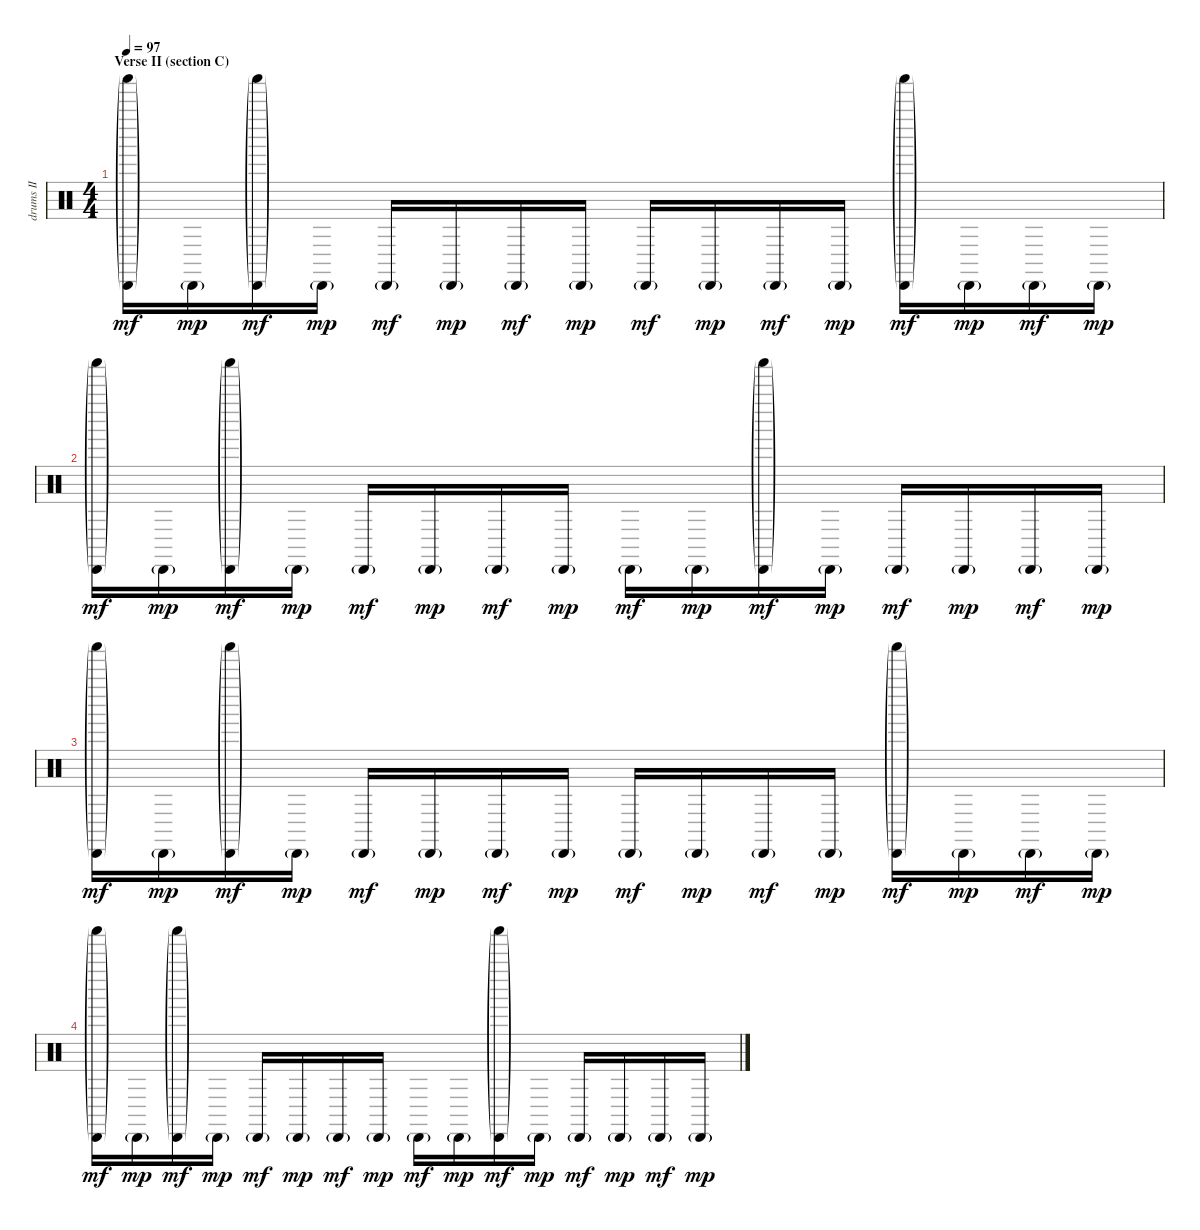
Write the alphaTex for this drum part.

\track ("drums II" "drums II") {instrument percussion}
\staff {score}
\articulation defaults
\ts (4 4)
\section ("" "Verse II (section C)")
\tempo 97
\clef neutral
\ks c
("Shaker (hit)"{g} "Cabasa (hit)"{g}).16{dy mf} "Cabasa (hit)"{g}.16{dy mp} ("Shaker (hit)"{g} "Cabasa (hit)"{g}).16{dy mf} "Cabasa (hit)"{g}.16{dy mp} "Cabasa (hit)"{g}.16{dy mf} "Cabasa (hit)"{g}.16{dy mp} "Cabasa (hit)"{g}.16{dy mf} "Cabasa (hit)"{g}.16{dy mp} "Cabasa (hit)"{g}.16{dy mf} "Cabasa (hit)"{g}.16{dy mp} "Cabasa (hit)"{g}.16{dy mf} "Cabasa (hit)"{g}.16{dy mp} ("Shaker (hit)"{g} "Cabasa (hit)"{g}).16{dy mf} "Cabasa (hit)"{g}.16{dy mp} "Cabasa (hit)"{g}.16{dy mf} "Cabasa (hit)"{g}.16{dy mp} |
("Shaker (hit)"{g} "Cabasa (hit)"{g}).16{dy mf} "Cabasa (hit)"{g}.16{dy mp} ("Shaker (hit)"{g} "Cabasa (hit)"{g}).16{dy mf} "Cabasa (hit)"{g}.16{dy mp} "Cabasa (hit)"{g}.16{dy mf} "Cabasa (hit)"{g}.16{dy mp} "Cabasa (hit)"{g}.16{dy mf} "Cabasa (hit)"{g}.16{dy mp} "Cabasa (hit)"{g}.16{dy mf} "Cabasa (hit)"{g}.16{dy mp} ("Shaker (hit)"{g} "Cabasa (hit)"{g}).16{dy mf} "Cabasa (hit)"{g}.16{dy mp} "Cabasa (hit)"{g}.16{dy mf} "Cabasa (hit)"{g}.16{dy mp} "Cabasa (hit)"{g}.16{dy mf} "Cabasa (hit)"{g}.16{dy mp} |
("Shaker (hit)"{g} "Cabasa (hit)"{g}).16{dy mf} "Cabasa (hit)"{g}.16{dy mp} ("Shaker (hit)"{g} "Cabasa (hit)"{g}).16{dy mf} "Cabasa (hit)"{g}.16{dy mp} "Cabasa (hit)"{g}.16{dy mf} "Cabasa (hit)"{g}.16{dy mp} "Cabasa (hit)"{g}.16{dy mf} "Cabasa (hit)"{g}.16{dy mp} "Cabasa (hit)"{g}.16{dy mf} "Cabasa (hit)"{g}.16{dy mp} "Cabasa (hit)"{g}.16{dy mf} "Cabasa (hit)"{g}.16{dy mp} ("Shaker (hit)"{g} "Cabasa (hit)"{g}).16{dy mf} "Cabasa (hit)"{g}.16{dy mp} "Cabasa (hit)"{g}.16{dy mf} "Cabasa (hit)"{g}.16{dy mp} |
("Shaker (hit)"{g} "Cabasa (hit)"{g}).16{dy mf} "Cabasa (hit)"{g}.16{dy mp} ("Shaker (hit)"{g} "Cabasa (hit)"{g}).16{dy mf} "Cabasa (hit)"{g}.16{dy mp} "Cabasa (hit)"{g}.16{dy mf} "Cabasa (hit)"{g}.16{dy mp} "Cabasa (hit)"{g}.16{dy mf} "Cabasa (hit)"{g}.16{dy mp} "Cabasa (hit)"{g}.16{dy mf} "Cabasa (hit)"{g}.16{dy mp} ("Shaker (hit)"{g} "Cabasa (hit)"{g}).16{dy mf} "Cabasa (hit)"{g}.16{dy mp} "Cabasa (hit)"{g}.16{dy mf} "Cabasa (hit)"{g}.16{dy mp} "Cabasa (hit)"{g}.16{dy mf} "Cabasa (hit)"{g}.16{dy mp}
